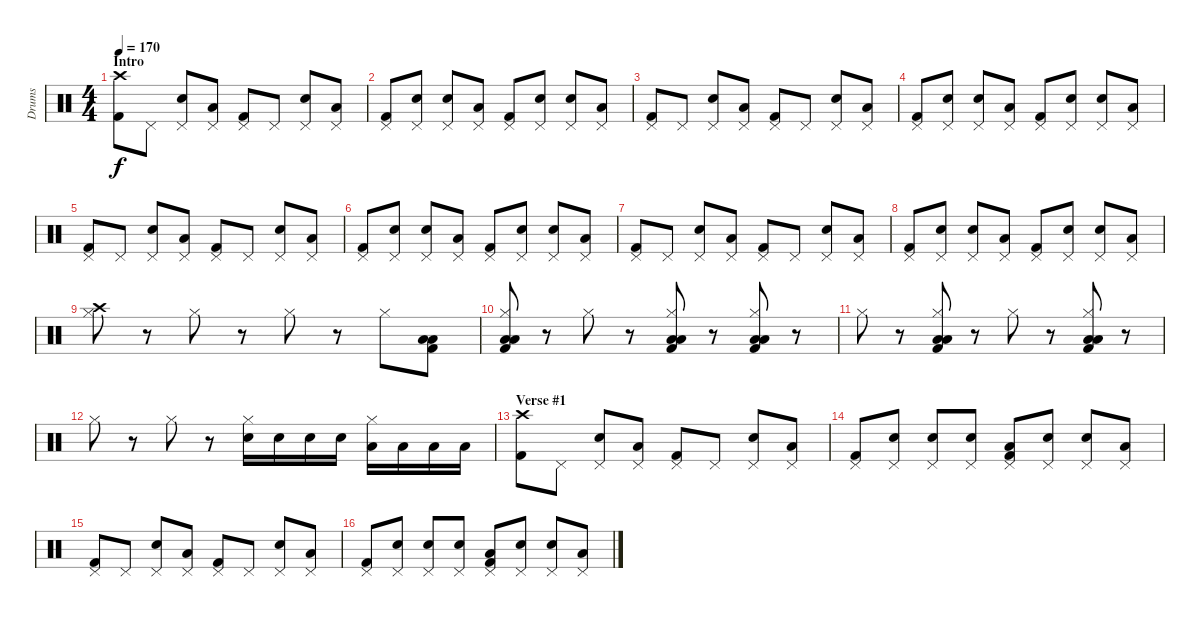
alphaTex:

\track ("Drums" "Drums") {instrument percussion}
\staff {score}
\articulation defaults
\ts (4 4)
\section ("" "Intro")
\tempo 170
\clef neutral
\ks c
("Crash high (hit)" "Kick (hit) 2").8{dy f} "Pedal Hi-Hat (hit)".8 ("Pedal Hi-Hat (hit)" "Electric Snare (hit)").8 ("Pedal Hi-Hat (hit)" "Low Tom (hit)").8 ("Pedal Hi-Hat (hit)" "Kick (hit) 2").8 "Pedal Hi-Hat (hit)".8 ("Pedal Hi-Hat (hit)" "Electric Snare (hit)").8 ("Pedal Hi-Hat (hit)" "Low Tom (hit)").8 |
("Pedal Hi-Hat (hit)" "Kick (hit) 2").8 ("Pedal Hi-Hat (hit)" "Electric Snare (hit)").8 ("Pedal Hi-Hat (hit)" "Electric Snare (hit)").8 ("Pedal Hi-Hat (hit)" "Low Tom (hit)").8 ("Pedal Hi-Hat (hit)" "Kick (hit) 2").8 ("Pedal Hi-Hat (hit)" "Electric Snare (hit)").8 ("Pedal Hi-Hat (hit)" "Electric Snare (hit)").8 ("Pedal Hi-Hat (hit)" "Low Tom (hit)").8 |
("Pedal Hi-Hat (hit)" "Kick (hit) 2").8 "Pedal Hi-Hat (hit)".8 ("Pedal Hi-Hat (hit)" "Electric Snare (hit)").8 ("Pedal Hi-Hat (hit)" "Low Tom (hit)").8 ("Pedal Hi-Hat (hit)" "Kick (hit) 2").8 "Pedal Hi-Hat (hit)".8 ("Pedal Hi-Hat (hit)" "Electric Snare (hit)").8 ("Pedal Hi-Hat (hit)" "Low Tom (hit)").8 |
("Pedal Hi-Hat (hit)" "Kick (hit) 2").8 ("Pedal Hi-Hat (hit)" "Electric Snare (hit)").8 ("Pedal Hi-Hat (hit)" "Electric Snare (hit)").8 ("Pedal Hi-Hat (hit)" "Low Tom (hit)").8 ("Pedal Hi-Hat (hit)" "Kick (hit) 2").8 ("Pedal Hi-Hat (hit)" "Electric Snare (hit)").8 ("Pedal Hi-Hat (hit)" "Electric Snare (hit)").8 ("Pedal Hi-Hat (hit)" "Low Tom (hit)").8 |
("Pedal Hi-Hat (hit)" "Kick (hit) 2").8 "Pedal Hi-Hat (hit)".8 ("Pedal Hi-Hat (hit)" "Electric Snare (hit)").8 ("Pedal Hi-Hat (hit)" "Low Tom (hit)").8 ("Pedal Hi-Hat (hit)" "Kick (hit) 2").8 "Pedal Hi-Hat (hit)".8 ("Pedal Hi-Hat (hit)" "Electric Snare (hit)").8 ("Pedal Hi-Hat (hit)" "Low Tom (hit)").8 |
("Pedal Hi-Hat (hit)" "Kick (hit) 2").8 ("Pedal Hi-Hat (hit)" "Electric Snare (hit)").8 ("Pedal Hi-Hat (hit)" "Electric Snare (hit)").8 ("Pedal Hi-Hat (hit)" "Low Tom (hit)").8 ("Pedal Hi-Hat (hit)" "Kick (hit) 2").8 ("Pedal Hi-Hat (hit)" "Electric Snare (hit)").8 ("Pedal Hi-Hat (hit)" "Electric Snare (hit)").8 ("Pedal Hi-Hat (hit)" "Low Tom (hit)").8 |
("Pedal Hi-Hat (hit)" "Kick (hit) 2").8 "Pedal Hi-Hat (hit)".8 ("Pedal Hi-Hat (hit)" "Electric Snare (hit)").8 ("Pedal Hi-Hat (hit)" "Low Tom (hit)").8 ("Pedal Hi-Hat (hit)" "Kick (hit) 2").8 "Pedal Hi-Hat (hit)".8 ("Pedal Hi-Hat (hit)" "Electric Snare (hit)").8 ("Pedal Hi-Hat (hit)" "Low Tom (hit)").8 |
("Pedal Hi-Hat (hit)" "Kick (hit) 2").8 ("Pedal Hi-Hat (hit)" "Electric Snare (hit)").8 ("Pedal Hi-Hat (hit)" "Electric Snare (hit)").8 ("Pedal Hi-Hat (hit)" "Low Tom (hit)").8 ("Pedal Hi-Hat (hit)" "Kick (hit) 2").8 ("Pedal Hi-Hat (hit)" "Electric Snare (hit)").8 ("Pedal Hi-Hat (hit)" "Electric Snare (hit)").8 ("Pedal Hi-Hat (hit)" "Low Tom (hit)").8 |
("Crash high (hit)" "Hi-Hat (closed)").8 r.8 "Hi-Hat (closed)".8 r.8 "Hi-Hat (closed)".8 r.8 "Hi-Hat (closed)".8 ("Low Floor Tom (hit)" "Low Tom (hit)" "Kick (hit) 2").8 |
("Hi-Hat (closed)" "Low Floor Tom (hit)" "Low Tom (hit)" "Kick (hit) 2").8 r.8 "Hi-Hat (closed)".8 r.8 ("Hi-Hat (closed)" "Low Floor Tom (hit)" "Low Tom (hit)" "Kick (hit) 2").8 r.8 ("Hi-Hat (closed)" "Low Floor Tom (hit)" "Low Tom (hit)" "Kick (hit) 2").8 r.8 |
"Hi-Hat (closed)".8 r.8 ("Hi-Hat (closed)" "Low Floor Tom (hit)" "Low Tom (hit)" "Kick (hit) 2").8 r.8 "Hi-Hat (closed)".8 r.8 ("Hi-Hat (closed)" "Low Floor Tom (hit)" "Low Tom (hit)" "Kick (hit) 2").8 r.8 |
"Hi-Hat (closed)".8 r.8 "Hi-Hat (closed)".8 r.8 ("Hi-Hat (closed)" "Electric Snare (hit)").16 "Electric Snare (hit)".16 "Electric Snare (hit)".16 "Electric Snare (hit)".16 ("Hi-Hat (closed)" "Low Tom (hit)").16 "Low Tom (hit)".16 "Low Floor Tom (hit)".16 "Low Floor Tom (hit)".16 |
\section ("" "Verse #1")
("Crash high (hit)" "Kick (hit) 2").8 "Pedal Hi-Hat (hit)".8 ("Pedal Hi-Hat (hit)" "Electric Snare (hit)").8 ("Pedal Hi-Hat (hit)" "Low Tom (hit)").8 ("Pedal Hi-Hat (hit)" "Kick (hit) 2").8 "Pedal Hi-Hat (hit)".8 ("Pedal Hi-Hat (hit)" "Electric Snare (hit)").8 ("Pedal Hi-Hat (hit)" "Low Tom (hit)").8 |
("Pedal Hi-Hat (hit)" "Kick (hit) 2").8 ("Pedal Hi-Hat (hit)" "Electric Snare (hit)").8 ("Pedal Hi-Hat (hit)" "Electric Snare (hit)").8 ("Pedal Hi-Hat (hit)" "Electric Snare (hit)").8 ("Pedal Hi-Hat (hit)" "Low Tom (hit)" "Kick (hit) 2").8 ("Pedal Hi-Hat (hit)" "Electric Snare (hit)").8 ("Pedal Hi-Hat (hit)" "Electric Snare (hit)").8 ("Pedal Hi-Hat (hit)" "Low Tom (hit)").8 |
("Pedal Hi-Hat (hit)" "Kick (hit) 2").8 "Pedal Hi-Hat (hit)".8 ("Pedal Hi-Hat (hit)" "Electric Snare (hit)").8 ("Pedal Hi-Hat (hit)" "Low Tom (hit)").8 ("Pedal Hi-Hat (hit)" "Kick (hit) 2").8 "Pedal Hi-Hat (hit)".8 ("Pedal Hi-Hat (hit)" "Electric Snare (hit)").8 ("Pedal Hi-Hat (hit)" "Low Tom (hit)").8 |
("Pedal Hi-Hat (hit)" "Kick (hit) 2").8 ("Pedal Hi-Hat (hit)" "Electric Snare (hit)").8 ("Pedal Hi-Hat (hit)" "Electric Snare (hit)").8 ("Pedal Hi-Hat (hit)" "Electric Snare (hit)").8 ("Pedal Hi-Hat (hit)" "Low Tom (hit)" "Kick (hit) 2").8 ("Pedal Hi-Hat (hit)" "Electric Snare (hit)").8 ("Pedal Hi-Hat (hit)" "Electric Snare (hit)").8 ("Pedal Hi-Hat (hit)" "Low Tom (hit)").8
